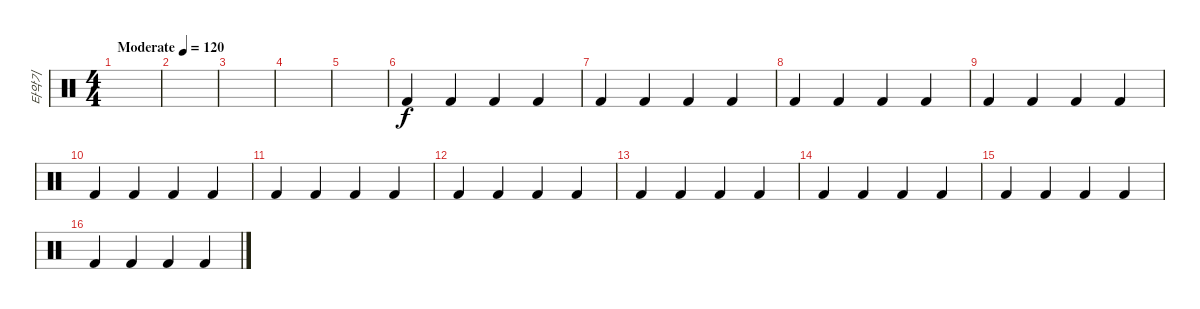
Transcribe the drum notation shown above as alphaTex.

\track ("타악기" "타악기") {instrument percussion}
\staff {score}
\articulation defaults
\ts (4 4)
\tempo (120 "Moderate")
\clef neutral
\ks c
|
|
|
|
|
"Kick (hit) 2".4 "Kick (hit) 2".4 "Kick (hit) 2".4 "Kick (hit) 2".4 |
"Kick (hit) 2".4 "Kick (hit) 2".4 "Kick (hit) 2".4 "Kick (hit) 2".4 |
"Kick (hit) 2".4 "Kick (hit) 2".4 "Kick (hit) 2".4 "Kick (hit) 2".4 |
"Kick (hit) 2".4 "Kick (hit) 2".4 "Kick (hit) 2".4 "Kick (hit) 2".4 |
"Kick (hit) 2".4 "Kick (hit) 2".4 "Kick (hit) 2".4 "Kick (hit) 2".4 |
"Kick (hit) 2".4 "Kick (hit) 2".4 "Kick (hit) 2".4 "Kick (hit) 2".4 |
"Kick (hit) 2".4 "Kick (hit) 2".4 "Kick (hit) 2".4 "Kick (hit) 2".4 |
"Kick (hit) 2".4 "Kick (hit) 2".4 "Kick (hit) 2".4 "Kick (hit) 2".4 |
"Kick (hit) 2".4 "Kick (hit) 2".4 "Kick (hit) 2".4 "Kick (hit) 2".4 |
"Kick (hit) 2".4 "Kick (hit) 2".4 "Kick (hit) 2".4 "Kick (hit) 2".4 |
"Kick (hit) 2".4 "Kick (hit) 2".4 "Kick (hit) 2".4 "Kick (hit) 2".4
